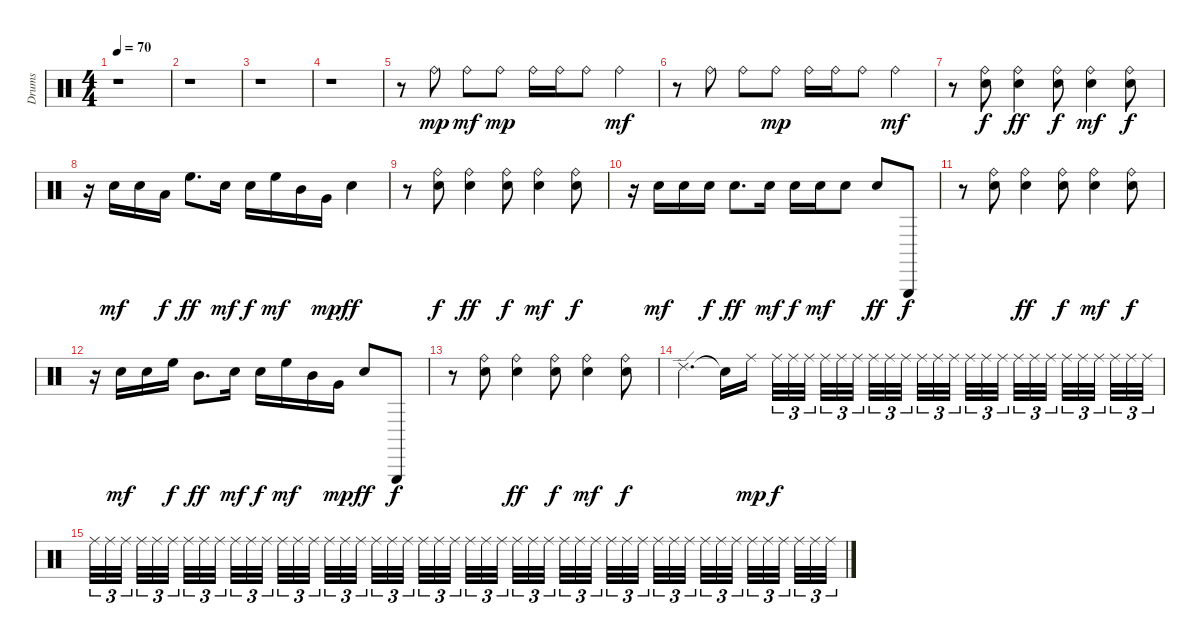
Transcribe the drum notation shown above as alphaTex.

\track ("Drums" "Drums") {instrument percussion}
\staff {score}
\articulation defaults
\ts (4 4)
\tempo 70
\clef neutral
\ks c
r.1{dy mp} |
r.1 |
r.1 |
r.1 |
r.8 "Ride (bell)".8 "Ride (bell)".8{dy mf} "Ride (bell)".8{dy mp} "Ride (bell)".16 "Ride (bell)".16 "Ride (bell)".8 "Ride (bell)".4{dy mf} |
r.8 "Ride (bell)".8 "Ride (bell)".8 "Ride (bell)".8{dy mp} "Ride (bell)".16 "Ride (bell)".16 "Ride (bell)".8 "Ride (bell)".4{dy mf} |
r.8 ("Ride (bell)" "Electric Snare (hit)").8{dy f} ("Ride (bell)" "Electric Snare (hit)").4{dy ff} ("Ride (bell)" "Electric Snare (hit)").8{dy f} ("Ride (bell)" "Electric Snare (hit)").4{dy mf} ("Ride (bell)" "Electric Snare (hit)").8{dy f} |
r.16 "Electric Snare (hit)".16{dy mf} "Electric Snare (hit)".16 "Low Tom (hit)".16{dy f} "High Floor Tom (hit)".8{d dy ff} "Electric Snare (hit)".16{dy mf} "Electric Snare (hit)".16{dy f} "High Floor Tom (hit)".16{dy mf} "Mid Tom (hit)".16 "Very Low Tom (hit)".16{dy mp} "Electric Snare (hit)".4{dy ff} |
r.8 ("Ride (bell)" "Electric Snare (hit)").8{dy f} ("Ride (bell)" "Electric Snare (hit)").4{dy ff} ("Ride (bell)" "Electric Snare (hit)").8{dy f} ("Ride (bell)" "Electric Snare (hit)").4{dy mf} ("Ride (bell)" "Electric Snare (hit)").8{dy f} |
r.16 "Electric Snare (hit)".16{dy mf} "Electric Snare (hit)".16 "Electric Snare (hit)".16{dy f} "Electric Snare (hit)".8{d dy ff} "Electric Snare (hit)".16{dy mf} "Electric Snare (hit)".16{dy f} "Electric Snare (hit)".16{dy mf} "Electric Snare (hit)".8 "Electric Snare (hit)".8{dy ff} "Triangle (hit)".8{dy f} |
r.8 ("Ride (bell)" "Electric Snare (hit)").8 ("Ride (bell)" "Electric Snare (hit)").4{dy ff} ("Ride (bell)" "Electric Snare (hit)").8{dy f} ("Ride (bell)" "Electric Snare (hit)").4{dy mf} ("Ride (bell)" "Electric Snare (hit)").8{dy f} |
r.16 "Electric Snare (hit)".16{dy mf} "Electric Snare (hit)".16 "High Floor Tom (hit)".16{dy f} "Mid Tom (hit)".8{d dy ff} "Electric Snare (hit)".16{dy mf} "Electric Snare (hit)".16{dy f} "High Floor Tom (hit)".16{dy mf} "Mid Tom (hit)".16 "Very Low Tom (hit)".16{dy mp} "Electric Snare (hit)".8{dy ff} "Triangle (hit)".8{dy f} |
r.8 ("Ride (bell)" "Electric Snare (hit)").8 ("Ride (bell)" "Electric Snare (hit)").4{dy ff} ("Ride (bell)" "Electric Snare (hit)").8{dy f} ("Ride (bell)" "Electric Snare (hit)").4{dy mf} ("Ride (bell)" "Electric Snare (hit)").8{dy f} |
"Ride (edge) 2".4{d} "Snare (hit)"{t}.16 "Ride (middle)".16{dy mp} "Ride (middle)".32{tu (3 2) dy f} "Ride (middle)".32{tu (3 2)} "Ride (middle)".32{tu (3 2) beam splitsecondary} "Ride (middle)".32{tu (3 2)} "Ride (middle)".32{tu (3 2)} "Ride (middle)".32{tu (3 2) beam splitsecondary} "Ride (middle)".32{tu (3 2)} "Ride (middle)".32{tu (3 2)} "Ride (middle)".32{tu (3 2) beam splitsecondary} "Ride (middle)".32{tu (3 2)} "Ride (middle)".32{tu (3 2)} "Ride (middle)".32{tu (3 2)} "Ride (middle)".32{tu (3 2)} "Ride (middle)".32{tu (3 2)} "Ride (middle)".32{tu (3 2) beam splitsecondary} "Ride (middle)".32{tu (3 2)} "Ride (middle)".32{tu (3 2)} "Ride (middle)".32{tu (3 2) beam splitsecondary} "Ride (middle)".32{tu (3 2)} "Ride (middle)".32{tu (3 2)} "Ride (middle)".32{tu (3 2) beam splitsecondary} "Ride (middle)".32{tu (3 2)} "Ride (middle)".32{tu (3 2)} "Ride (middle)".32{tu (3 2)} |
"Ride (middle)".32{tu (3 2)} "Ride (middle)".32{tu (3 2)} "Ride (middle)".32{tu (3 2) beam splitsecondary} "Ride (middle)".32{tu (3 2)} "Ride (middle)".32{tu (3 2)} "Ride (middle)".32{tu (3 2) beam splitsecondary} "Ride (middle)".32{tu (3 2)} "Ride (middle)".32{tu (3 2)} "Ride (middle)".32{tu (3 2) beam splitsecondary} "Ride (middle)".32{tu (3 2)} "Ride (middle)".32{tu (3 2)} "Ride (middle)".32{tu (3 2)} "Ride (middle)".32{tu (3 2)} "Ride (middle)".32{tu (3 2)} "Ride (middle)".32{tu (3 2) beam splitsecondary} "Ride (middle)".32{tu (3 2)} "Ride (middle)".32{tu (3 2)} "Ride (middle)".32{tu (3 2) beam splitsecondary} "Ride (middle)".32{tu (3 2)} "Ride (middle)".32{tu (3 2)} "Ride (middle)".32{tu (3 2) beam splitsecondary} "Ride (middle)".32{tu (3 2)} "Ride (middle)".32{tu (3 2)} "Ride (middle)".32{tu (3 2)} "Ride (middle)".32{tu (3 2)} "Ride (middle)".32{tu (3 2)} "Ride (middle)".32{tu (3 2) beam splitsecondary} "Ride (middle)".32{tu (3 2)} "Ride (middle)".32{tu (3 2)} "Ride (middle)".32{tu (3 2) beam splitsecondary} "Ride (middle)".32{tu (3 2)} "Ride (middle)".32{tu (3 2)} "Ride (middle)".32{tu (3 2) beam splitsecondary} "Ride (middle)".32{tu (3 2)} "Ride (middle)".32{tu (3 2)} "Ride (middle)".32{tu (3 2)} "Ride (middle)".32{tu (3 2)} "Ride (middle)".32{tu (3 2)} "Ride (middle)".32{tu (3 2) beam splitsecondary} "Ride (middle)".32{tu (3 2)} "Ride (middle)".32{tu (3 2)} "Ride (middle)".32{tu (3 2) beam splitsecondary} "Ride (middle)".32{tu (3 2)} "Ride (middle)".32{tu (3 2)} "Ride (middle)".32{tu (3 2) beam splitsecondary} "Ride (middle)".32{tu (3 2)} "Ride (middle)".32{tu (3 2)} "Ride (middle)".32{tu (3 2)}
